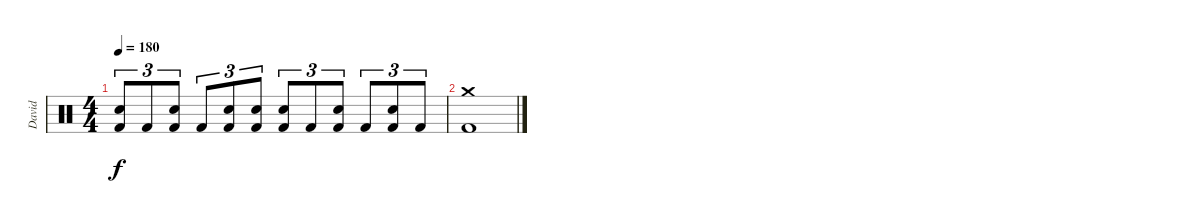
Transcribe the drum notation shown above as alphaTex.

\track ("David" "David") {instrument percussion}
\staff {score}
\articulation defaults
\ts (4 4)
\tempo 180
\clef neutral
\ks c
("Electric Snare (hit)" "Kick (hit) 2").8{tu (3 2) dy f} "Kick (hit) 2".8{tu (3 2)} ("Electric Snare (hit)" "Kick (hit) 2").8{tu (3 2)} "Kick (hit) 2".8{tu (3 2)} ("Electric Snare (hit)" "Kick (hit) 2").8{tu (3 2)} ("Electric Snare (hit)" "Kick (hit) 2").8{tu (3 2)} ("Electric Snare (hit)" "Kick (hit) 2").8{tu (3 2)} "Kick (hit) 2".8{tu (3 2)} ("Electric Snare (hit)" "Kick (hit) 2").8{tu (3 2)} "Kick (hit) 2".8{tu (3 2)} ("Electric Snare (hit)" "Kick (hit) 2").8{tu (3 2)} "Kick (hit) 2".8{tu (3 2)} |
("Crash medium (hit)" "Kick (hit) 2").1
